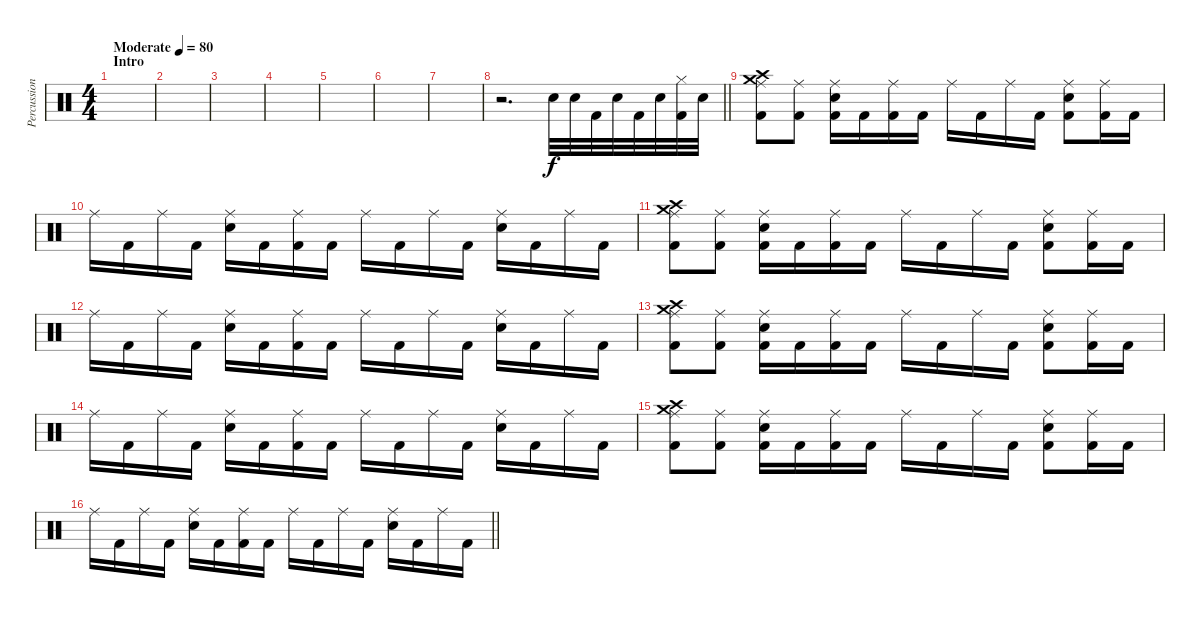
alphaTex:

\track ("Percussion" "Percussion") {instrument percussion}
\staff {score}
\articulation defaults
\ts (4 4)
\section ("" "Intro")
\tempo (80 "Moderate")
\clef neutral
\ks c
|
|
|
|
|
|
|
\barLineRight lightlight
r.2{d} "Snare (hit) 2".32{volume 14} "Snare (hit) 2".32 "Kick (hit) 2".32 "Snare (hit) 2".32 "Kick (hit) 2".32 "Snare (hit) 2".32 ("Hi-Hat (closed)" "Kick (hit) 2").32 "Snare (hit) 2".32 |
("Kick (hit) 2" "Ride (middle)" "Crash high (hit)" "Crash medium (hit)").8 ("Kick (hit) 2" "Ride (middle)").8 ("Kick (hit) 2" "Ride (middle)" "Snare (hit) 2").16 "Kick (hit) 2".16 ("Kick (hit) 2" "Ride (middle)").16 "Kick (hit) 2".16 "Ride (middle)".16 "Kick (hit) 2".16 "Ride (middle)".16 "Kick (hit) 2".16 ("Kick (hit) 2" "Ride (middle)" "Snare (hit) 2").8 ("Kick (hit) 2" "Ride (middle)").16 "Kick (hit) 2".16 |
"Ride (middle)".16 "Kick (hit) 2".16 "Ride (middle)".16 "Kick (hit) 2".16 ("Ride (middle)" "Snare (hit) 2").16 "Kick (hit) 2".16 ("Ride (middle)" "Kick (hit) 2").16 "Kick (hit) 2".16 "Ride (middle)".16 "Kick (hit) 2".16 "Ride (middle)".16 "Kick (hit) 2".16 ("Ride (middle)" "Snare (hit) 2").16 "Kick (hit) 2".16 "Ride (middle)".16 "Kick (hit) 2".16 |
("Kick (hit) 2" "Ride (middle)" "Crash high (hit)" "Crash medium (hit)").8 ("Kick (hit) 2" "Ride (middle)").8 ("Kick (hit) 2" "Ride (middle)" "Snare (hit) 2").16 "Kick (hit) 2".16 ("Kick (hit) 2" "Ride (middle)").16 "Kick (hit) 2".16 "Ride (middle)".16 "Kick (hit) 2".16 "Ride (middle)".16 "Kick (hit) 2".16 ("Kick (hit) 2" "Ride (middle)" "Snare (hit) 2").8 ("Kick (hit) 2" "Ride (middle)").16 "Kick (hit) 2".16 |
"Ride (middle)".16 "Kick (hit) 2".16 "Ride (middle)".16 "Kick (hit) 2".16 ("Ride (middle)" "Snare (hit) 2").16 "Kick (hit) 2".16 ("Ride (middle)" "Kick (hit) 2").16 "Kick (hit) 2".16 "Ride (middle)".16 "Kick (hit) 2".16 "Ride (middle)".16 "Kick (hit) 2".16 ("Ride (middle)" "Snare (hit) 2").16 "Kick (hit) 2".16 "Ride (middle)".16 "Kick (hit) 2".16 |
("Kick (hit) 2" "Ride (middle)" "Crash high (hit)" "Crash medium (hit)").8 ("Kick (hit) 2" "Ride (middle)").8 ("Kick (hit) 2" "Ride (middle)" "Snare (hit) 2").16 "Kick (hit) 2".16 ("Kick (hit) 2" "Ride (middle)").16 "Kick (hit) 2".16 "Ride (middle)".16 "Kick (hit) 2".16 "Ride (middle)".16 "Kick (hit) 2".16 ("Kick (hit) 2" "Ride (middle)" "Snare (hit) 2").8 ("Kick (hit) 2" "Ride (middle)").16 "Kick (hit) 2".16 |
"Ride (middle)".16 "Kick (hit) 2".16 "Ride (middle)".16 "Kick (hit) 2".16 ("Ride (middle)" "Snare (hit) 2").16 "Kick (hit) 2".16 ("Ride (middle)" "Kick (hit) 2").16 "Kick (hit) 2".16 "Ride (middle)".16 "Kick (hit) 2".16 "Ride (middle)".16 "Kick (hit) 2".16 ("Ride (middle)" "Snare (hit) 2").16 "Kick (hit) 2".16 "Ride (middle)".16 "Kick (hit) 2".16 |
("Kick (hit) 2" "Ride (middle)" "Crash high (hit)" "Crash medium (hit)").8 ("Kick (hit) 2" "Ride (middle)").8 ("Kick (hit) 2" "Ride (middle)" "Snare (hit) 2").16 "Kick (hit) 2".16 ("Kick (hit) 2" "Ride (middle)").16 "Kick (hit) 2".16 "Ride (middle)".16 "Kick (hit) 2".16 "Ride (middle)".16 "Kick (hit) 2".16 ("Kick (hit) 2" "Ride (middle)" "Snare (hit) 2").8 ("Kick (hit) 2" "Ride (middle)").16 "Kick (hit) 2".16 |
\barLineRight lightlight "Ride (middle)".16 "Kick (hit) 2".16 "Ride (middle)".16 "Kick (hit) 2".16
("Ride (middle)" "Snare (hit) 2").16 "Kick (hit) 2".16 ("Ride (middle)" "Kick (hit) 2").16 "Kick (hit) 2".16 "Ride (middle)".16 "Kick (hit) 2".16 "Ride (middle)".16 "Kick (hit) 2".16 ("Ride (middle)" "Snare (hit) 2").16 "Kick (hit) 2".16 "Ride (middle)".16 "Kick (hit) 2".16
